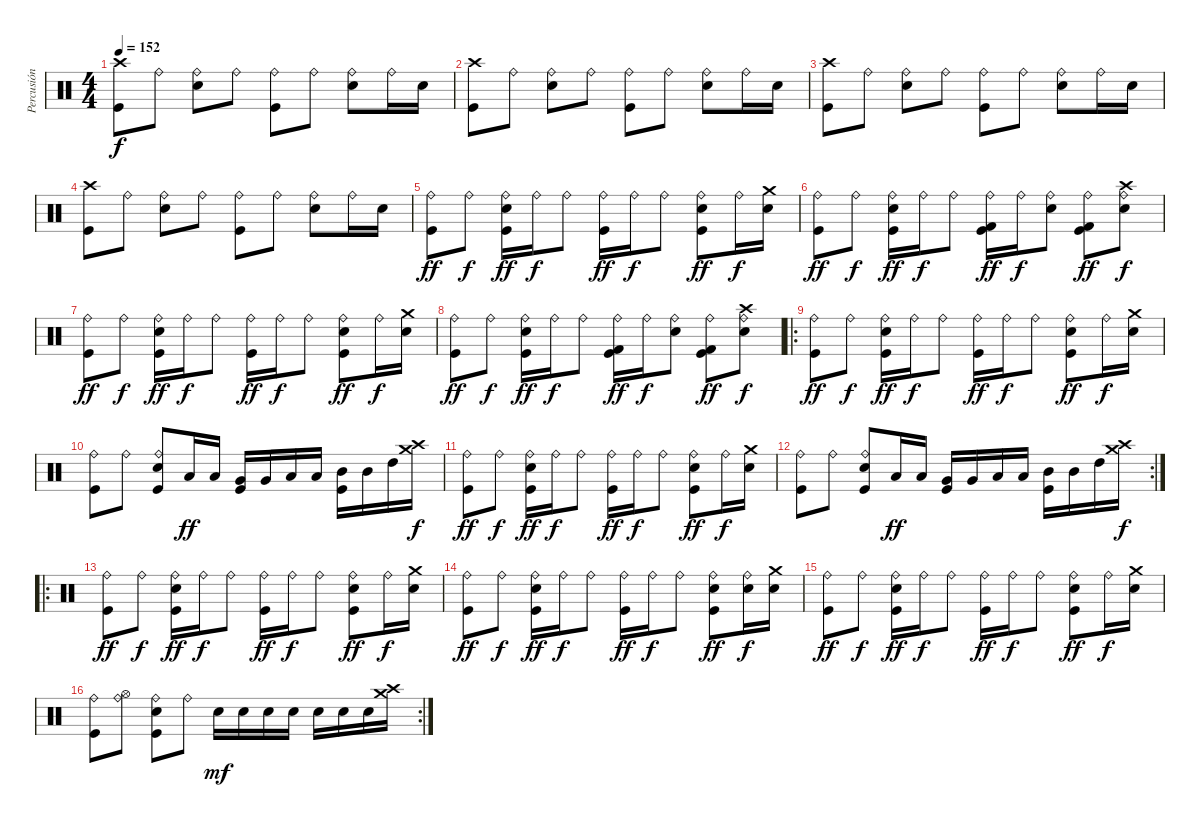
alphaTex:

\track ("Percusión" "Percusión") {instrument percussion}
\staff {score}
\articulation defaults
\ts (4 4)
\tempo 152
\clef neutral
\ks c
("Crash high (hit)" "Kick (hit)").8{dy f} "Ride (bell)".8 ("Ride (bell)" "Electric Snare (hit)").8 "Ride (bell)".8 ("Ride (bell)" "Kick (hit)").8 "Ride (bell)".8 ("Ride (bell)" "Electric Snare (hit)").8 "Ride (bell)".16 "Electric Snare (hit)".16 |
("Crash high (hit)" "Kick (hit)").8 "Ride (bell)".8 ("Ride (bell)" "Electric Snare (hit)").8 "Ride (bell)".8 ("Ride (bell)" "Kick (hit)").8 "Ride (bell)".8 ("Ride (bell)" "Electric Snare (hit)").8 "Ride (bell)".16 "Electric Snare (hit)".16 |
("Crash high (hit)" "Kick (hit)").8 "Ride (bell)".8 ("Ride (bell)" "Electric Snare (hit)").8 "Ride (bell)".8 ("Ride (bell)" "Kick (hit)").8 "Ride (bell)".8 ("Ride (bell)" "Electric Snare (hit)").8 "Ride (bell)".16 "Electric Snare (hit)".16 |
("Crash high (hit)" "Kick (hit)").8 "Ride (bell)".8 ("Ride (bell)" "Electric Snare (hit)").8 "Ride (bell)".8 ("Ride (bell)" "Kick (hit)").8 "Ride (bell)".8 ("Ride (bell)" "Electric Snare (hit)").8 "Ride (bell)".16 "Electric Snare (hit)".16 |
("Ride (bell)" "Kick (hit)").8{dy ff} "Ride (bell)".8{dy f} ("Ride (bell)" "Electric Snare (hit)" "Kick (hit)").16{dy ff} "Ride (bell)".16{dy f} "Ride (bell)".8 ("Ride (bell)" "Kick (hit)").16{dy ff} "Ride (bell)".16{dy f} "Ride (bell)".8 ("Ride (bell)" "Electric Snare (hit)" "Kick (hit)").8{dy ff} "Ride (bell)".16{dy f} ("Crash medium (hit)" "Electric Snare (hit)").16 |
("Ride (bell)" "Kick (hit)").8{dy ff} "Ride (bell)".8{dy f} ("Ride (bell)" "Electric Snare (hit)" "Kick (hit)").16{dy ff} "Ride (bell)".16{dy f} "Ride (bell)".8 ("Ride (bell)" "Kick (hit) 2" "Kick (hit)").16{dy ff} "Ride (bell)".16{dy f} ("Ride (bell)" "Electric Snare (hit)").8 ("Ride (bell)" "Kick (hit) 2" "Kick (hit)").8{dy ff} ("Ride (bell)" "Crash high (hit)" "Electric Snare (hit)").8{dy f} |
("Ride (bell)" "Kick (hit)").8{dy ff} "Ride (bell)".8{dy f} ("Ride (bell)" "Electric Snare (hit)" "Kick (hit)").16{dy ff} "Ride (bell)".16{dy f} "Ride (bell)".8 ("Ride (bell)" "Kick (hit)").16{dy ff} "Ride (bell)".16{dy f} "Ride (bell)".8 ("Ride (bell)" "Electric Snare (hit)" "Kick (hit)").8{dy ff} "Ride (bell)".16{dy f} ("Crash medium (hit)" "Electric Snare (hit)").16 |
("Ride (bell)" "Kick (hit)").8{dy ff} "Ride (bell)".8{dy f} ("Ride (bell)" "Electric Snare (hit)" "Kick (hit)").16{dy ff} "Ride (bell)".16{dy f} "Ride (bell)".8 ("Ride (bell)" "Kick (hit) 2" "Kick (hit)").16{dy ff} "Ride (bell)".16{dy f} ("Ride (bell)" "Electric Snare (hit)").8 ("Ride (bell)" "Kick (hit) 2" "Kick (hit)").8{dy ff} ("Ride (bell)" "Crash high (hit)" "Electric Snare (hit)").8{dy f} |
\ro
("Ride (bell)" "Kick (hit)").8{dy ff} "Ride (bell)".8{dy f} ("Ride (bell)" "Electric Snare (hit)" "Kick (hit)").16{dy ff} "Ride (bell)".16{dy f} "Ride (bell)".8 ("Ride (bell)" "Kick (hit)").16{dy ff} "Ride (bell)".16{dy f} "Ride (bell)".8 ("Ride (bell)" "Electric Snare (hit)" "Kick (hit)").8{dy ff} "Ride (bell)".16{dy f} ("Crash medium (hit)" "Electric Snare (hit)").16 |
("Ride (bell)" "Kick (hit)").8 "Ride (bell)".8 ("Ride (bell)" "Electric Snare (hit)" "Kick (hit)").8 "Low Floor Tom (hit)".16{dy ff} "Low Floor Tom (hit)".16 ("Very Low Tom (hit)" "Kick (hit)").16 "Very Low Tom (hit)".16 "Low Tom (hit)".16 "Low Tom (hit)".16 ("Mid Tom (hit)" "Kick (hit)").16 "Mid Tom (hit)".16 "High Tom (hit)".16 ("Crash high (hit)" "Crash medium (hit)").16{dy f} |
("Ride (bell)" "Kick (hit)").8{dy ff} "Ride (bell)".8{dy f} ("Ride (bell)" "Electric Snare (hit)" "Kick (hit)").16{dy ff} "Ride (bell)".16{dy f} "Ride (bell)".8 ("Ride (bell)" "Kick (hit)").16{dy ff} "Ride (bell)".16{dy f} "Ride (bell)".8 ("Ride (bell)" "Electric Snare (hit)" "Kick (hit)").8{dy ff} "Ride (bell)".16{dy f} ("Crash medium (hit)" "Electric Snare (hit)").16 |
\rc 2
("Ride (bell)" "Kick (hit)").8 "Ride (bell)".8 ("Ride (bell)" "Electric Snare (hit)" "Kick (hit)").8 "Low Floor Tom (hit)".16{dy ff} "Low Floor Tom (hit)".16 ("Very Low Tom (hit)" "Kick (hit)").16 "Very Low Tom (hit)".16 "Low Tom (hit)".16 "Low Tom (hit)".16 ("Mid Tom (hit)" "Kick (hit)").16 "Mid Tom (hit)".16 "High Tom (hit)".16 ("Crash high (hit)" "Crash medium (hit)").16{dy f} |
\ro
("Ride (bell)" "Kick (hit)").8{dy ff} "Ride (bell)".8{dy f} ("Ride (bell)" "Electric Snare (hit)" "Kick (hit)").16{dy ff} "Ride (bell)".16{dy f} "Ride (bell)".8 ("Ride (bell)" "Kick (hit)").16{dy ff} "Ride (bell)".16{dy f} "Ride (bell)".8 ("Ride (bell)" "Electric Snare (hit)" "Kick (hit)").8{dy ff} "Ride (bell)".16{dy f} ("Crash medium (hit)" "Electric Snare (hit)").16 |
("Ride (bell)" "Kick (hit)").8{dy ff} "Ride (bell)".8{dy f} ("Ride (bell)" "Electric Snare (hit)" "Kick (hit)").16{dy ff} "Ride (bell)".16{dy f} "Ride (bell)".8 ("Ride (bell)" "Kick (hit)").16{dy ff} "Ride (bell)".16{dy f} "Ride (bell)".8 ("Ride (bell)" "Electric Snare (hit)" "Kick (hit)").8{dy ff} ("Ride (bell)" "Electric Snare (hit)").16{dy f} ("Crash medium (hit)" "Electric Snare (hit)").16 |
("Ride (bell)" "Kick (hit)").8{dy ff} "Ride (bell)".8{dy f} ("Ride (bell)" "Electric Snare (hit)" "Kick (hit)").16{dy ff} "Ride (bell)".16{dy f} "Ride (bell)".8 ("Ride (bell)" "Kick (hit)").16{dy ff} "Ride (bell)".16{dy f} "Ride (bell)".8 ("Ride (bell)" "Electric Snare (hit)" "Kick (hit)").8{dy ff} "Ride (bell)".16{dy f} ("Crash medium (hit)" "Electric Snare (hit)").16 |
\rc 2
("Ride (bell)" "Kick (hit)").8 ("Ride (bell)" "Hi-Hat (open)").8 ("Ride (bell)" "Electric Snare (hit)" "Kick (hit)").8 "Ride (bell)".8 "Electric Snare (hit)".16{dy mf} "Electric Snare (hit)".16 "Electric Snare (hit)".16 "Electric Snare (hit)".16 "Electric Snare (hit)".16 "Electric Snare (hit)".16 "Electric Snare (hit)".16 ("Crash high (hit)" "Crash medium (hit)").16
